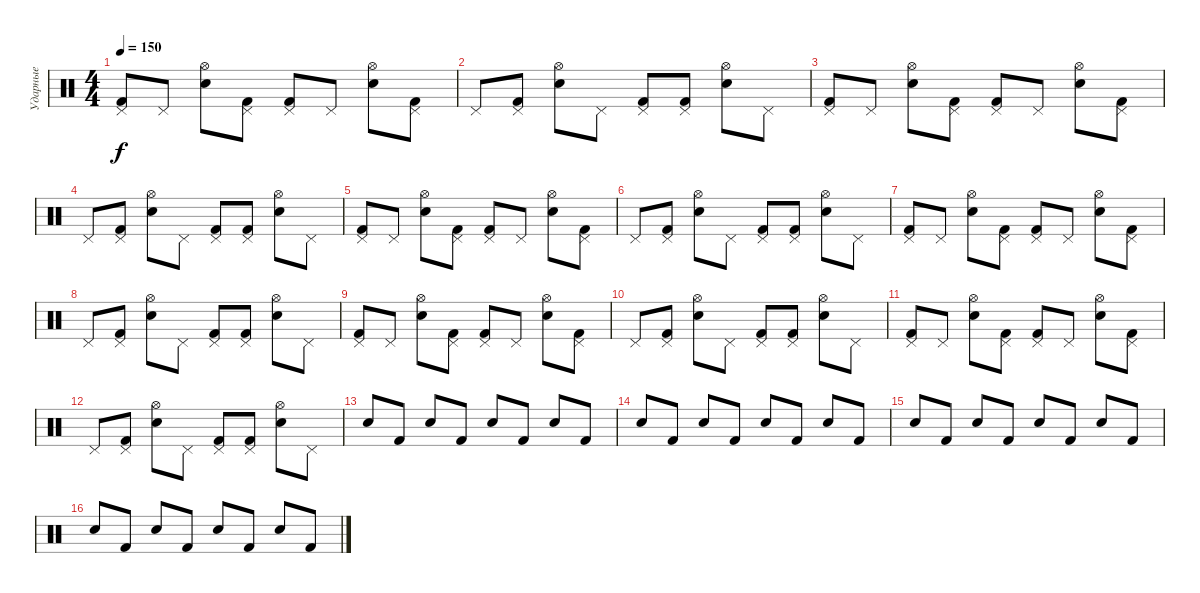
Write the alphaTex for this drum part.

\track ("Ударные" "Ударные") {instrument percussion}
\staff {score}
\articulation defaults
\ts (4 4)
\tempo 150
\clef neutral
\ks c
("Pedal Hi-Hat (hit)" "Kick (hit) 2").8{dy f} "Pedal Hi-Hat (hit)".8 ("Hi-Hat (open)" "Electric Snare (hit)").8 ("Pedal Hi-Hat (hit)" "Kick (hit) 2").8 ("Pedal Hi-Hat (hit)" "Kick (hit) 2").8 "Pedal Hi-Hat (hit)".8 ("Hi-Hat (open)" "Electric Snare (hit)").8 ("Pedal Hi-Hat (hit)" "Kick (hit) 2").8 |
"Pedal Hi-Hat (hit)".8 ("Pedal Hi-Hat (hit)" "Kick (hit) 2").8 ("Hi-Hat (open)" "Electric Snare (hit)").8 "Pedal Hi-Hat (hit)".8 ("Pedal Hi-Hat (hit)" "Kick (hit) 2").8 ("Pedal Hi-Hat (hit)" "Kick (hit) 2").8 ("Hi-Hat (open)" "Electric Snare (hit)").8 "Pedal Hi-Hat (hit)".8 |
("Pedal Hi-Hat (hit)" "Kick (hit) 2").8 "Pedal Hi-Hat (hit)".8 ("Hi-Hat (open)" "Electric Snare (hit)").8 ("Pedal Hi-Hat (hit)" "Kick (hit) 2").8 ("Pedal Hi-Hat (hit)" "Kick (hit) 2").8 "Pedal Hi-Hat (hit)".8 ("Hi-Hat (open)" "Electric Snare (hit)").8 ("Pedal Hi-Hat (hit)" "Kick (hit) 2").8 |
"Pedal Hi-Hat (hit)".8 ("Pedal Hi-Hat (hit)" "Kick (hit) 2").8 ("Hi-Hat (open)" "Electric Snare (hit)").8 "Pedal Hi-Hat (hit)".8 ("Pedal Hi-Hat (hit)" "Kick (hit) 2").8 ("Pedal Hi-Hat (hit)" "Kick (hit) 2").8 ("Hi-Hat (open)" "Electric Snare (hit)").8 "Pedal Hi-Hat (hit)".8 |
("Pedal Hi-Hat (hit)" "Kick (hit) 2").8 "Pedal Hi-Hat (hit)".8 ("Hi-Hat (open)" "Electric Snare (hit)").8 ("Pedal Hi-Hat (hit)" "Kick (hit) 2").8 ("Pedal Hi-Hat (hit)" "Kick (hit) 2").8 "Pedal Hi-Hat (hit)".8 ("Hi-Hat (open)" "Electric Snare (hit)").8 ("Pedal Hi-Hat (hit)" "Kick (hit) 2").8 |
"Pedal Hi-Hat (hit)".8 ("Pedal Hi-Hat (hit)" "Kick (hit) 2").8 ("Hi-Hat (open)" "Electric Snare (hit)").8 "Pedal Hi-Hat (hit)".8 ("Pedal Hi-Hat (hit)" "Kick (hit) 2").8 ("Pedal Hi-Hat (hit)" "Kick (hit) 2").8 ("Hi-Hat (open)" "Electric Snare (hit)").8 "Pedal Hi-Hat (hit)".8 |
("Pedal Hi-Hat (hit)" "Kick (hit) 2").8 "Pedal Hi-Hat (hit)".8 ("Hi-Hat (open)" "Electric Snare (hit)").8 ("Pedal Hi-Hat (hit)" "Kick (hit) 2").8 ("Pedal Hi-Hat (hit)" "Kick (hit) 2").8 "Pedal Hi-Hat (hit)".8 ("Hi-Hat (open)" "Electric Snare (hit)").8 ("Pedal Hi-Hat (hit)" "Kick (hit) 2").8 |
"Pedal Hi-Hat (hit)".8 ("Pedal Hi-Hat (hit)" "Kick (hit) 2").8 ("Hi-Hat (open)" "Electric Snare (hit)").8 "Pedal Hi-Hat (hit)".8 ("Pedal Hi-Hat (hit)" "Kick (hit) 2").8 ("Pedal Hi-Hat (hit)" "Kick (hit) 2").8 ("Hi-Hat (open)" "Electric Snare (hit)").8 "Pedal Hi-Hat (hit)".8 |
("Pedal Hi-Hat (hit)" "Kick (hit) 2").8 "Pedal Hi-Hat (hit)".8 ("Hi-Hat (open)" "Electric Snare (hit)").8 ("Pedal Hi-Hat (hit)" "Kick (hit) 2").8 ("Pedal Hi-Hat (hit)" "Kick (hit) 2").8 "Pedal Hi-Hat (hit)".8 ("Hi-Hat (open)" "Electric Snare (hit)").8 ("Pedal Hi-Hat (hit)" "Kick (hit) 2").8 |
"Pedal Hi-Hat (hit)".8 ("Pedal Hi-Hat (hit)" "Kick (hit) 2").8 ("Hi-Hat (open)" "Electric Snare (hit)").8 "Pedal Hi-Hat (hit)".8 ("Pedal Hi-Hat (hit)" "Kick (hit) 2").8 ("Pedal Hi-Hat (hit)" "Kick (hit) 2").8 ("Hi-Hat (open)" "Electric Snare (hit)").8 "Pedal Hi-Hat (hit)".8 |
("Pedal Hi-Hat (hit)" "Kick (hit) 2").8 "Pedal Hi-Hat (hit)".8 ("Hi-Hat (open)" "Electric Snare (hit)").8 ("Pedal Hi-Hat (hit)" "Kick (hit) 2").8 ("Pedal Hi-Hat (hit)" "Kick (hit) 2").8 "Pedal Hi-Hat (hit)".8 ("Hi-Hat (open)" "Electric Snare (hit)").8 ("Pedal Hi-Hat (hit)" "Kick (hit) 2").8 |
"Pedal Hi-Hat (hit)".8 ("Pedal Hi-Hat (hit)" "Kick (hit) 2").8 ("Hi-Hat (open)" "Electric Snare (hit)").8 "Pedal Hi-Hat (hit)".8 ("Pedal Hi-Hat (hit)" "Kick (hit) 2").8 ("Pedal Hi-Hat (hit)" "Kick (hit) 2").8 ("Hi-Hat (open)" "Electric Snare (hit)").8 "Pedal Hi-Hat (hit)".8 |
"Electric Snare (hit)".8 "Kick (hit) 2".8 "Electric Snare (hit)".8 "Kick (hit) 2".8 "Electric Snare (hit)".8 "Kick (hit) 2".8 "Electric Snare (hit)".8 "Kick (hit) 2".8 |
"Electric Snare (hit)".8 "Kick (hit) 2".8 "Electric Snare (hit)".8 "Kick (hit) 2".8 "Electric Snare (hit)".8 "Kick (hit) 2".8 "Electric Snare (hit)".8 "Kick (hit) 2".8 |
"Electric Snare (hit)".8 "Kick (hit) 2".8 "Electric Snare (hit)".8 "Kick (hit) 2".8 "Electric Snare (hit)".8 "Kick (hit) 2".8 "Electric Snare (hit)".8 "Kick (hit) 2".8 |
"Electric Snare (hit)".8 "Kick (hit) 2".8 "Electric Snare (hit)".8 "Kick (hit) 2".8 "Electric Snare (hit)".8 "Kick (hit) 2".8 "Electric Snare (hit)".8 "Kick (hit) 2".8
